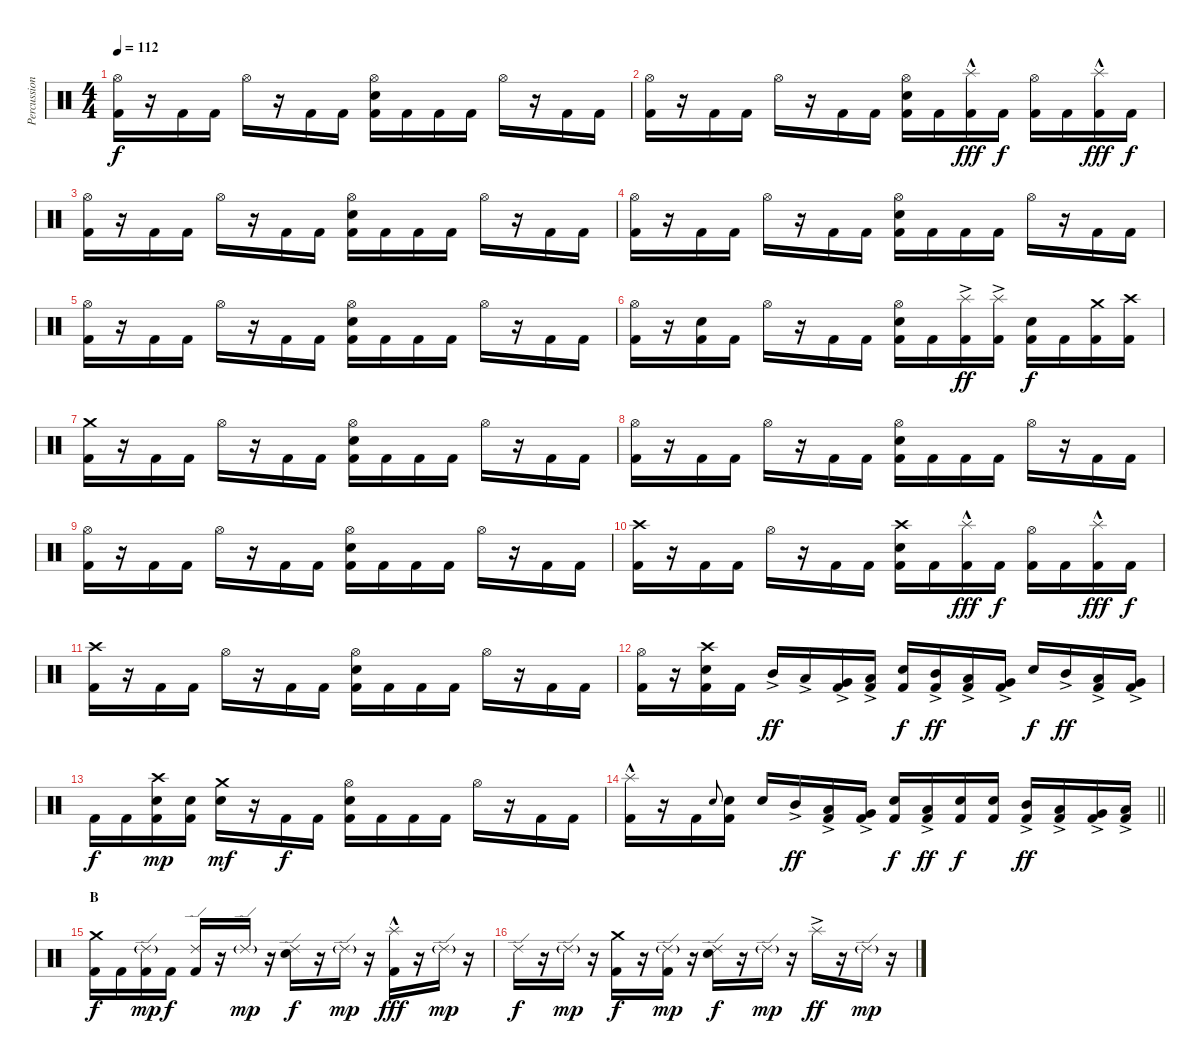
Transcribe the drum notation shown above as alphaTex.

\track ("Percussion" "Percussion") {instrument percussion}
\staff {score}
\articulation defaults
\ts (4 4)
\tempo 112
\clef neutral
\ks c
("Hi-Hat (open)" "Kick (hit) 2").16{dy f} r.16 "Kick (hit) 2".16 "Kick (hit) 2".16 "Hi-Hat (open)".16 r.16 "Kick (hit) 2".16 "Kick (hit) 2".16 ("Hi-Hat (open)" "Electric Snare (hit)" "Kick (hit) 2").16 "Kick (hit) 2".16 "Kick (hit) 2".16 "Kick (hit) 2".16 "Hi-Hat (open)".16 r.16 "Kick (hit) 2".16 "Kick (hit) 2".16 |
("Hi-Hat (open)" "Kick (hit) 2").16 r.16 "Kick (hit) 2".16 "Kick (hit) 2".16 "Hi-Hat (open)".16 r.16 "Kick (hit) 2".16 "Kick (hit) 2".16 ("Hi-Hat (open)" "Electric Snare (hit)" "Kick (hit) 2").16 "Kick (hit) 2".16 ("Splash (hit)"{hac} "Kick (hit) 2").16{dy fff} "Kick (hit) 2".16{dy f} ("Hi-Hat (open)" "Kick (hit) 2").16 "Kick (hit) 2".16 ("Splash (hit)"{hac} "Kick (hit) 2").16{dy fff} "Kick (hit) 2".16{dy f} |
("Hi-Hat (open)" "Kick (hit) 2").16 r.16 "Kick (hit) 2".16 "Kick (hit) 2".16 "Hi-Hat (open)".16 r.16 "Kick (hit) 2".16 "Kick (hit) 2".16 ("Hi-Hat (open)" "Electric Snare (hit)" "Kick (hit) 2").16 "Kick (hit) 2".16 "Kick (hit) 2".16 "Kick (hit) 2".16 "Hi-Hat (open)".16 r.16 "Kick (hit) 2".16 "Kick (hit) 2".16 |
("Hi-Hat (open)" "Kick (hit) 2").16 r.16 "Kick (hit) 2".16 "Kick (hit) 2".16 "Hi-Hat (open)".16 r.16 "Kick (hit) 2".16 "Kick (hit) 2".16 ("Hi-Hat (open)" "Electric Snare (hit)" "Kick (hit) 2").16 "Kick (hit) 2".16 "Kick (hit) 2".16 "Kick (hit) 2".16 "Hi-Hat (open)".16 r.16 "Kick (hit) 2".16 "Kick (hit) 2".16 |
("Hi-Hat (open)" "Kick (hit) 2").16 r.16 "Kick (hit) 2".16 "Kick (hit) 2".16 "Hi-Hat (open)".16 r.16 "Kick (hit) 2".16 "Kick (hit) 2".16 ("Hi-Hat (open)" "Electric Snare (hit)" "Kick (hit) 2").16 "Kick (hit) 2".16 "Kick (hit) 2".16 "Kick (hit) 2".16 "Hi-Hat (open)".16 r.16 "Kick (hit) 2".16 "Kick (hit) 2".16 |
("Hi-Hat (open)" "Kick (hit) 2").16 r.16 ("Electric Snare (hit)" "Kick (hit) 2").16 "Kick (hit) 2".16 "Hi-Hat (open)".16 r.16 "Kick (hit) 2".16 "Kick (hit) 2".16 ("Hi-Hat (open)" "Electric Snare (hit)" "Kick (hit) 2").16 "Kick (hit) 2".16 ("Splash (hit)"{ac} "Kick (hit) 2").16{dy ff} ("Splash (hit)"{ac} "Kick (hit) 2").16 ("Electric Snare (hit)" "Kick (hit) 2").16{dy f} "Kick (hit) 2".16 ("Crash medium (hit)" "Kick (hit) 2").16 ("Crash high (hit)" "Kick (hit) 2").16 |
("Crash medium (hit)" "Kick (hit) 2").16 r.16 "Kick (hit) 2".16 "Kick (hit) 2".16 "Hi-Hat (open)".16 r.16 "Kick (hit) 2".16 "Kick (hit) 2".16 ("Hi-Hat (open)" "Electric Snare (hit)" "Kick (hit) 2").16 "Kick (hit) 2".16 "Kick (hit) 2".16 "Kick (hit) 2".16 "Hi-Hat (open)".16 r.16 "Kick (hit) 2".16 "Kick (hit) 2".16 |
("Hi-Hat (open)" "Kick (hit) 2").16 r.16 "Kick (hit) 2".16 "Kick (hit) 2".16 "Hi-Hat (open)".16 r.16 "Kick (hit) 2".16 "Kick (hit) 2".16 ("Hi-Hat (open)" "Electric Snare (hit)" "Kick (hit) 2").16 "Kick (hit) 2".16 "Kick (hit) 2".16 "Kick (hit) 2".16 "Hi-Hat (open)".16 r.16 "Kick (hit) 2".16 "Kick (hit) 2".16 |
("Hi-Hat (open)" "Kick (hit) 2").16 r.16 "Kick (hit) 2".16 "Kick (hit) 2".16 "Hi-Hat (open)".16 r.16 "Kick (hit) 2".16 "Kick (hit) 2".16 ("Hi-Hat (open)" "Electric Snare (hit)" "Kick (hit) 2").16 "Kick (hit) 2".16 "Kick (hit) 2".16 "Kick (hit) 2".16 "Hi-Hat (open)".16 r.16 "Kick (hit) 2".16 "Kick (hit) 2".16 |
("Crash high (hit)" "Kick (hit) 2").16 r.16 "Kick (hit) 2".16 "Kick (hit) 2".16 "Hi-Hat (open)".16 r.16 "Kick (hit) 2".16 "Kick (hit) 2".16 ("Crash high (hit)" "Electric Snare (hit)" "Kick (hit) 2").16 "Kick (hit) 2".16 ("Splash (hit)"{hac} "Kick (hit) 2").16{dy fff} "Kick (hit) 2".16{dy f} ("Hi-Hat (open)" "Kick (hit) 2").16 "Kick (hit) 2".16 ("Splash (hit)"{hac} "Kick (hit) 2").16{dy fff} "Kick (hit) 2".16{dy f} |
("Crash high (hit)" "Kick (hit) 2").16 r.16 "Kick (hit) 2".16 "Kick (hit) 2".16 "Hi-Hat (open)".16 r.16 "Kick (hit) 2".16 "Kick (hit) 2".16 ("Hi-Hat (open)" "Electric Snare (hit)" "Kick (hit) 2").16 "Kick (hit) 2".16 "Kick (hit) 2".16 "Kick (hit) 2".16 "Hi-Hat (open)".16 r.16 "Kick (hit) 2".16 "Kick (hit) 2".16 |
("Hi-Hat (open)" "Kick (hit) 2").16 r.16 ("Crash high (hit)" "Electric Snare (hit)" "Kick (hit) 2").16 "Kick (hit) 2".16 "Mid Tom (hit)"{ac}.16{dy ff} "Low Tom (hit)"{ac}.16 ("Very Low Tom (hit)"{ac} "Kick (hit) 2").16 ("Low Floor Tom (hit)"{ac} "Kick (hit) 2").16 ("Electric Snare (hit)" "Kick (hit) 2").16{dy f} ("Mid Tom (hit)"{ac} "Kick (hit) 2").16{dy ff} ("Low Tom (hit)"{ac} "Kick (hit) 2").16 ("Very Low Tom (hit)"{ac} "Kick (hit) 2").16 "Electric Snare (hit)".16{dy f} "Mid Tom (hit)"{ac}.16{dy ff} ("Low Tom (hit)"{ac} "Kick (hit) 2").16 ("Very Low Tom (hit)"{ac} "Kick (hit) 2").16 |
"Kick (hit) 2".16{dy f} "Kick (hit) 2".16 ("Crash high (hit)" "Electric Snare (hit)" "Kick (hit) 2").16{dy mp} ("Electric Snare (hit)" "Kick (hit) 2").16 ("Crash medium (hit)" "Electric Snare (hit)").16{dy mf} r.16 "Kick (hit) 2".16{dy f} "Kick (hit) 2".16 ("Hi-Hat (open)" "Electric Snare (hit)" "Kick (hit) 2").16 "Kick (hit) 2".16 "Kick (hit) 2".16 "Kick (hit) 2".16 "Hi-Hat (open)".16 r.16 "Kick (hit) 2".16 "Kick (hit) 2".16 |
\barLineRight lightlight
("Splash (hit)"{hac} "Kick (hit) 2").16 r.16 "Kick (hit) 2".16 "Electric Snare (hit)".8{gr onbeat} ("Electric Snare (hit)" "Kick (hit) 2").16 "Electric Snare (hit)".16 "Mid Tom (hit)"{ac}.16{dy ff} ("Low Tom (hit)"{ac} "Kick (hit) 2").16 ("Very Low Tom (hit)"{ac} "Kick (hit) 2").16 ("Electric Snare (hit)" "Kick (hit) 2").16{dy f} ("Low Tom (hit)"{ac} "Kick (hit) 2").16{dy ff} ("Electric Snare (hit)" "Kick (hit) 2").16{dy f} ("Electric Snare (hit)" "Kick (hit) 2").16 ("Mid Tom (hit)"{ac} "Kick (hit) 2").16{dy ff} ("Low Tom (hit)"{ac} "Kick (hit) 2").16 ("Very Low Tom (hit)"{ac} "Kick (hit) 2").16 ("Low Floor Tom (hit)"{ac} "Kick (hit) 2").16 |
\section ("" "B")
("Crash medium (hit)" "Kick (hit) 2").16{dy f} "Kick (hit) 2".16 ("Ride (edge) 2"{g} "Kick (hit) 2").16{dy mp} "Kick (hit) 2".16{dy f} ("Ride (edge) 2" "Kick (hit) 2").16 r.16 "Ride (edge) 2"{g}.16{dy mp} r.16 ("Ride (edge) 2" "Electric Snare (hit)").16{dy f} r.16 "Ride (edge) 2"{g}.16{dy mp} r.16 ("Splash (hit)"{hac} "Kick (hit) 2").16{dy fff} r.16 "Ride (edge) 2"{g}.16{dy mp} r.16 |
"Ride (edge) 2".16{dy f} r.16 "Ride (edge) 2"{g}.16{dy mp} r.16 ("Crash medium (hit)" "Kick (hit) 2").16{dy f} r.16 ("Ride (edge) 2"{g} "Kick (hit) 2").16{dy mp} r.16 ("Ride (edge) 2" "Electric Snare (hit)").16{dy f} r.16 "Ride (edge) 2"{g}.16{dy mp} r.16 "Splash (hit)"{ac}.16{dy ff} r.16 "Ride (edge) 2"{g}.16{dy mp} r.16
